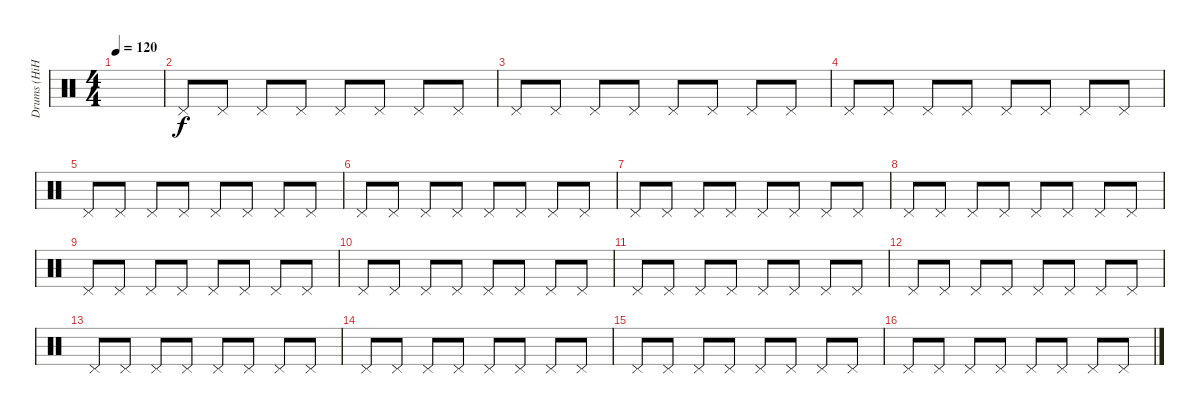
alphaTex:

\track ("Drums (HiHat)" "Drums (HiH") {instrument percussion}
\staff {score}
\articulation defaults
\ts (4 4)
\tempo 120
\clef neutral
\ks c
|
"Pedal Hi-Hat (hit)".8 "Pedal Hi-Hat (hit)".8 "Pedal Hi-Hat (hit)".8 "Pedal Hi-Hat (hit)".8 "Pedal Hi-Hat (hit)".8 "Pedal Hi-Hat (hit)".8 "Pedal Hi-Hat (hit)".8 "Pedal Hi-Hat (hit)".8 |
"Pedal Hi-Hat (hit)".8 "Pedal Hi-Hat (hit)".8 "Pedal Hi-Hat (hit)".8 "Pedal Hi-Hat (hit)".8 "Pedal Hi-Hat (hit)".8 "Pedal Hi-Hat (hit)".8 "Pedal Hi-Hat (hit)".8 "Pedal Hi-Hat (hit)".8 |
"Pedal Hi-Hat (hit)".8 "Pedal Hi-Hat (hit)".8 "Pedal Hi-Hat (hit)".8 "Pedal Hi-Hat (hit)".8 "Pedal Hi-Hat (hit)".8 "Pedal Hi-Hat (hit)".8 "Pedal Hi-Hat (hit)".8 "Pedal Hi-Hat (hit)".8 |
"Pedal Hi-Hat (hit)".8 "Pedal Hi-Hat (hit)".8 "Pedal Hi-Hat (hit)".8 "Pedal Hi-Hat (hit)".8 "Pedal Hi-Hat (hit)".8 "Pedal Hi-Hat (hit)".8 "Pedal Hi-Hat (hit)".8 "Pedal Hi-Hat (hit)".8 |
"Pedal Hi-Hat (hit)".8 "Pedal Hi-Hat (hit)".8 "Pedal Hi-Hat (hit)".8 "Pedal Hi-Hat (hit)".8 "Pedal Hi-Hat (hit)".8 "Pedal Hi-Hat (hit)".8 "Pedal Hi-Hat (hit)".8 "Pedal Hi-Hat (hit)".8 |
"Pedal Hi-Hat (hit)".8 "Pedal Hi-Hat (hit)".8 "Pedal Hi-Hat (hit)".8 "Pedal Hi-Hat (hit)".8 "Pedal Hi-Hat (hit)".8 "Pedal Hi-Hat (hit)".8 "Pedal Hi-Hat (hit)".8 "Pedal Hi-Hat (hit)".8 |
"Pedal Hi-Hat (hit)".8 "Pedal Hi-Hat (hit)".8 "Pedal Hi-Hat (hit)".8 "Pedal Hi-Hat (hit)".8 "Pedal Hi-Hat (hit)".8 "Pedal Hi-Hat (hit)".8 "Pedal Hi-Hat (hit)".8 "Pedal Hi-Hat (hit)".8 |
"Pedal Hi-Hat (hit)".8 "Pedal Hi-Hat (hit)".8 "Pedal Hi-Hat (hit)".8 "Pedal Hi-Hat (hit)".8 "Pedal Hi-Hat (hit)".8 "Pedal Hi-Hat (hit)".8 "Pedal Hi-Hat (hit)".8 "Pedal Hi-Hat (hit)".8 |
"Pedal Hi-Hat (hit)".8 "Pedal Hi-Hat (hit)".8 "Pedal Hi-Hat (hit)".8 "Pedal Hi-Hat (hit)".8 "Pedal Hi-Hat (hit)".8 "Pedal Hi-Hat (hit)".8 "Pedal Hi-Hat (hit)".8 "Pedal Hi-Hat (hit)".8 |
"Pedal Hi-Hat (hit)".8 "Pedal Hi-Hat (hit)".8 "Pedal Hi-Hat (hit)".8 "Pedal Hi-Hat (hit)".8 "Pedal Hi-Hat (hit)".8 "Pedal Hi-Hat (hit)".8 "Pedal Hi-Hat (hit)".8 "Pedal Hi-Hat (hit)".8 |
"Pedal Hi-Hat (hit)".8 "Pedal Hi-Hat (hit)".8 "Pedal Hi-Hat (hit)".8 "Pedal Hi-Hat (hit)".8 "Pedal Hi-Hat (hit)".8 "Pedal Hi-Hat (hit)".8 "Pedal Hi-Hat (hit)".8 "Pedal Hi-Hat (hit)".8 |
"Pedal Hi-Hat (hit)".8 "Pedal Hi-Hat (hit)".8 "Pedal Hi-Hat (hit)".8 "Pedal Hi-Hat (hit)".8 "Pedal Hi-Hat (hit)".8 "Pedal Hi-Hat (hit)".8 "Pedal Hi-Hat (hit)".8 "Pedal Hi-Hat (hit)".8 |
"Pedal Hi-Hat (hit)".8 "Pedal Hi-Hat (hit)".8 "Pedal Hi-Hat (hit)".8 "Pedal Hi-Hat (hit)".8 "Pedal Hi-Hat (hit)".8 "Pedal Hi-Hat (hit)".8 "Pedal Hi-Hat (hit)".8 "Pedal Hi-Hat (hit)".8 |
"Pedal Hi-Hat (hit)".8 "Pedal Hi-Hat (hit)".8 "Pedal Hi-Hat (hit)".8 "Pedal Hi-Hat (hit)".8 "Pedal Hi-Hat (hit)".8 "Pedal Hi-Hat (hit)".8 "Pedal Hi-Hat (hit)".8 "Pedal Hi-Hat (hit)".8 |
"Pedal Hi-Hat (hit)".8 "Pedal Hi-Hat (hit)".8 "Pedal Hi-Hat (hit)".8 "Pedal Hi-Hat (hit)".8 "Pedal Hi-Hat (hit)".8 "Pedal Hi-Hat (hit)".8 "Pedal Hi-Hat (hit)".8 "Pedal Hi-Hat (hit)".8
